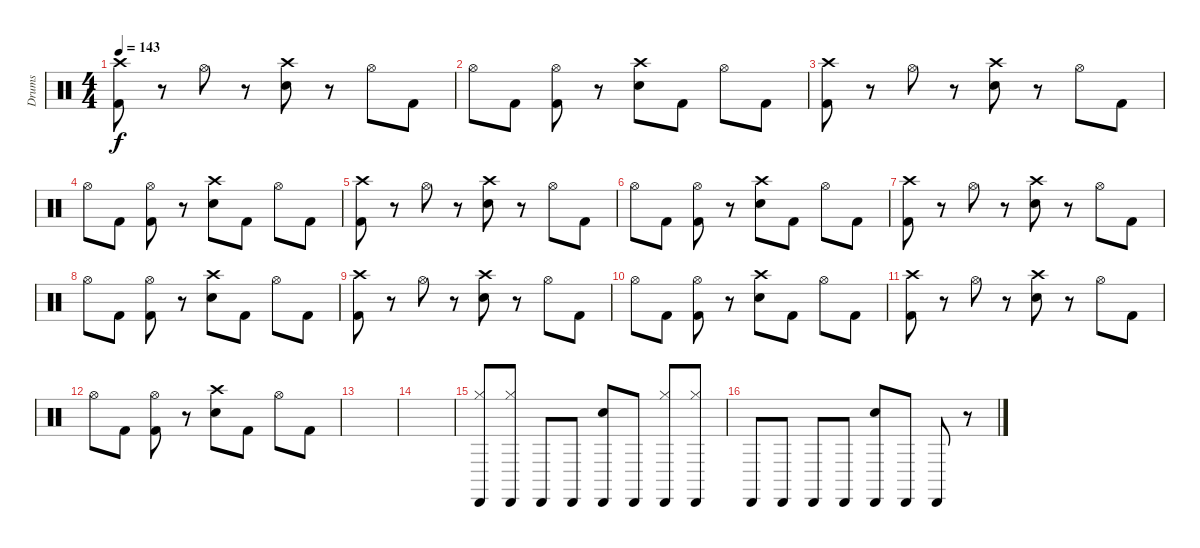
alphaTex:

\track ("Drums" "Drums") {instrument percussion}
\staff {score}
\articulation defaults
\ts (4 4)
\tempo 143
\clef neutral
\ks c
("Crash high (hit)" "Kick (hit) 2").8{dy f} r.8 "Hi-Hat (open)".8 r.8 ("Crash high (hit)" "Electric Snare (hit)").8 r.8 "Hi-Hat (open)".8 "Kick (hit) 2".8 |
"Hi-Hat (open)".8 "Kick (hit) 2".8 ("Kick (hit) 2" "Hi-Hat (open)").8 r.8 ("Crash high (hit)" "Electric Snare (hit)").8 "Kick (hit) 2".8 "Hi-Hat (open)".8 "Kick (hit) 2".8 |
("Crash high (hit)" "Kick (hit) 2").8 r.8 "Hi-Hat (open)".8 r.8 ("Crash high (hit)" "Electric Snare (hit)").8 r.8 "Hi-Hat (open)".8 "Kick (hit) 2".8 |
"Hi-Hat (open)".8 "Kick (hit) 2".8 ("Kick (hit) 2" "Hi-Hat (open)").8 r.8 ("Crash high (hit)" "Electric Snare (hit)").8 "Kick (hit) 2".8 "Hi-Hat (open)".8 "Kick (hit) 2".8 |
("Crash high (hit)" "Kick (hit) 2").8 r.8 "Hi-Hat (open)".8 r.8 ("Crash high (hit)" "Electric Snare (hit)").8 r.8 "Hi-Hat (open)".8 "Kick (hit) 2".8 |
"Hi-Hat (open)".8 "Kick (hit) 2".8 ("Kick (hit) 2" "Hi-Hat (open)").8 r.8 ("Crash high (hit)" "Electric Snare (hit)").8 "Kick (hit) 2".8 "Hi-Hat (open)".8 "Kick (hit) 2".8 |
("Crash high (hit)" "Kick (hit) 2").8 r.8 "Hi-Hat (open)".8 r.8 ("Crash high (hit)" "Electric Snare (hit)").8 r.8 "Hi-Hat (open)".8 "Kick (hit) 2".8 |
"Hi-Hat (open)".8 "Kick (hit) 2".8 ("Kick (hit) 2" "Hi-Hat (open)").8 r.8 ("Crash high (hit)" "Electric Snare (hit)").8 "Kick (hit) 2".8 "Hi-Hat (open)".8 "Kick (hit) 2".8 |
("Crash high (hit)" "Kick (hit) 2").8 r.8 "Hi-Hat (open)".8 r.8 ("Crash high (hit)" "Electric Snare (hit)").8 r.8 "Hi-Hat (open)".8 "Kick (hit) 2".8 |
"Hi-Hat (open)".8 "Kick (hit) 2".8 ("Kick (hit) 2" "Hi-Hat (open)").8 r.8 ("Crash high (hit)" "Electric Snare (hit)").8 "Kick (hit) 2".8 "Hi-Hat (open)".8 "Kick (hit) 2".8 |
("Crash high (hit)" "Kick (hit) 2").8 r.8 "Hi-Hat (open)".8 r.8 ("Crash high (hit)" "Electric Snare (hit)").8 r.8 "Hi-Hat (open)".8 "Kick (hit) 2".8 |
"Hi-Hat (open)".8 "Kick (hit) 2".8 ("Kick (hit) 2" "Hi-Hat (open)").8 r.8 ("Crash high (hit)" "Electric Snare (hit)").8 "Kick (hit) 2".8 "Hi-Hat (open)".8 "Kick (hit) 2".8 |
|
|
("Cabasa (hit)" "Hi-Hat (closed)").8 ("Cabasa (hit)" "Hi-Hat (closed)").8 "Cabasa (hit)".8 "Cabasa (hit)".8 ("Cabasa (hit)" "Electric Snare (hit)").8 "Cabasa (hit)".8 ("Cabasa (hit)" "Hi-Hat (closed)").8 ("Cabasa (hit)" "Hi-Hat (closed)").8 |
"Cabasa (hit)".8 "Cabasa (hit)".8 "Cabasa (hit)".8 "Cabasa (hit)".8 ("Cabasa (hit)" "Electric Snare (hit)").8 "Cabasa (hit)".8 "Cabasa (hit)".8 r.8
